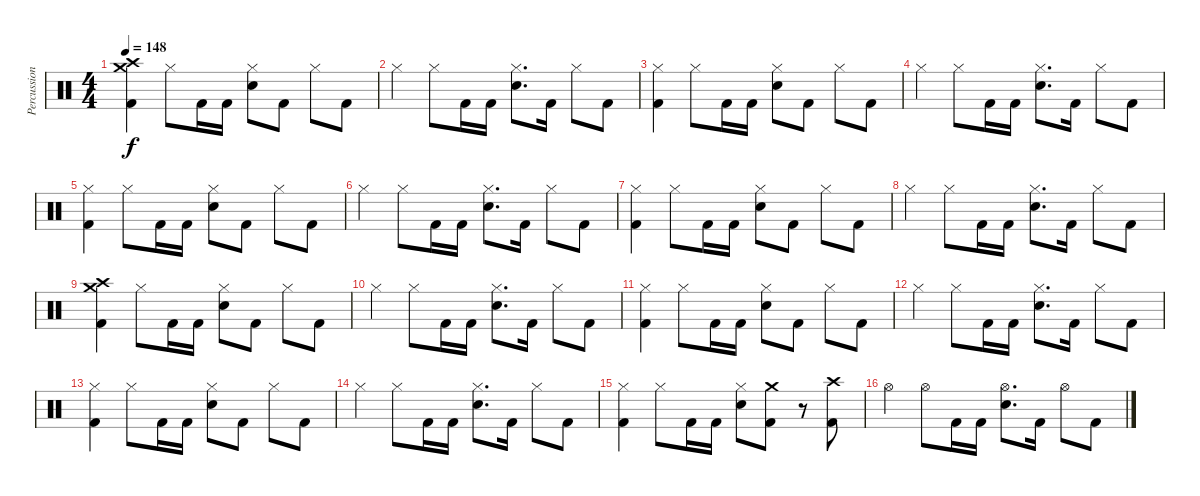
\track ("Percussion" "Percussion") {instrument percussion}
\staff {score}
\articulation defaults
\ts (4 4)
\tempo 148
\clef neutral
\ks c
("Crash high (hit)" "Crash medium (hit)" "Kick (hit) 2").4{dy f} "Hi-Hat (closed)".8 "Kick (hit) 2".16 "Kick (hit) 2".16 ("Hi-Hat (closed)" "Electric Snare (hit)").8 "Kick (hit) 2".8 "Hi-Hat (closed)".8 "Kick (hit) 2".8 |
"Hi-Hat (closed)".4 "Hi-Hat (closed)".8 "Kick (hit) 2".16 "Kick (hit) 2".16 ("Hi-Hat (closed)" "Electric Snare (hit)").8{d} "Kick (hit) 2".16 "Hi-Hat (closed)".8 "Kick (hit) 2".8 |
("Hi-Hat (closed)" "Kick (hit) 2").4 "Hi-Hat (closed)".8 "Kick (hit) 2".16 "Kick (hit) 2".16 ("Hi-Hat (closed)" "Electric Snare (hit)").8 "Kick (hit) 2".8 "Hi-Hat (closed)".8 "Kick (hit) 2".8 |
"Hi-Hat (closed)".4 "Hi-Hat (closed)".8 "Kick (hit) 2".16 "Kick (hit) 2".16 ("Hi-Hat (closed)" "Electric Snare (hit)").8{d} "Kick (hit) 2".16 "Hi-Hat (closed)".8 "Kick (hit) 2".8 |
("Hi-Hat (closed)" "Kick (hit) 2").4 "Hi-Hat (closed)".8 "Kick (hit) 2".16 "Kick (hit) 2".16 ("Hi-Hat (closed)" "Electric Snare (hit)").8 "Kick (hit) 2".8 "Hi-Hat (closed)".8 "Kick (hit) 2".8 |
"Hi-Hat (closed)".4 "Hi-Hat (closed)".8 "Kick (hit) 2".16 "Kick (hit) 2".16 ("Hi-Hat (closed)" "Electric Snare (hit)").8{d} "Kick (hit) 2".16 "Hi-Hat (closed)".8 "Kick (hit) 2".8 |
("Hi-Hat (closed)" "Kick (hit) 2").4 "Hi-Hat (closed)".8 "Kick (hit) 2".16 "Kick (hit) 2".16 ("Hi-Hat (closed)" "Electric Snare (hit)").8 "Kick (hit) 2".8 "Hi-Hat (closed)".8 "Kick (hit) 2".8 |
"Hi-Hat (closed)".4 "Hi-Hat (closed)".8 "Kick (hit) 2".16 "Kick (hit) 2".16 ("Hi-Hat (closed)" "Electric Snare (hit)").8{d} "Kick (hit) 2".16 "Hi-Hat (closed)".8 "Kick (hit) 2".8 |
("Crash high (hit)" "Crash medium (hit)" "Kick (hit) 2").4 "Hi-Hat (closed)".8 "Kick (hit) 2".16 "Kick (hit) 2".16 ("Hi-Hat (closed)" "Electric Snare (hit)").8 "Kick (hit) 2".8 "Hi-Hat (closed)".8 "Kick (hit) 2".8 |
"Hi-Hat (closed)".4 "Hi-Hat (closed)".8 "Kick (hit) 2".16 "Kick (hit) 2".16 ("Hi-Hat (closed)" "Electric Snare (hit)").8{d} "Kick (hit) 2".16 "Hi-Hat (closed)".8 "Kick (hit) 2".8 |
("Hi-Hat (closed)" "Kick (hit) 2").4 "Hi-Hat (closed)".8 "Kick (hit) 2".16 "Kick (hit) 2".16 ("Hi-Hat (closed)" "Electric Snare (hit)").8 "Kick (hit) 2".8 "Hi-Hat (closed)".8 "Kick (hit) 2".8 |
"Hi-Hat (closed)".4 "Hi-Hat (closed)".8 "Kick (hit) 2".16 "Kick (hit) 2".16 ("Hi-Hat (closed)" "Electric Snare (hit)").8{d} "Kick (hit) 2".16 "Hi-Hat (closed)".8 "Kick (hit) 2".8 |
("Hi-Hat (closed)" "Kick (hit) 2").4 "Hi-Hat (closed)".8 "Kick (hit) 2".16 "Kick (hit) 2".16 ("Hi-Hat (closed)" "Electric Snare (hit)").8 "Kick (hit) 2".8 "Hi-Hat (closed)".8 "Kick (hit) 2".8 |
"Hi-Hat (closed)".4 "Hi-Hat (closed)".8 "Kick (hit) 2".16 "Kick (hit) 2".16 ("Hi-Hat (closed)" "Electric Snare (hit)").8{d} "Kick (hit) 2".16 "Hi-Hat (closed)".8 "Kick (hit) 2".8 |
("Hi-Hat (closed)" "Kick (hit) 2").4 "Hi-Hat (closed)".8 "Kick (hit) 2".16 "Kick (hit) 2".16 ("Hi-Hat (closed)" "Electric Snare (hit)").8 ("Crash medium (hit)" "Kick (hit) 2").8 r.8 ("Crash high (hit)" "Kick (hit) 2").8 |
"Hi-Hat (open)".4 "Hi-Hat (open)".8 "Kick (hit) 2".16 "Kick (hit) 2".16 ("Hi-Hat (open)" "Electric Snare (hit)").8{d} "Kick (hit) 2".16 "Hi-Hat (open)".8 "Kick (hit) 2".8
